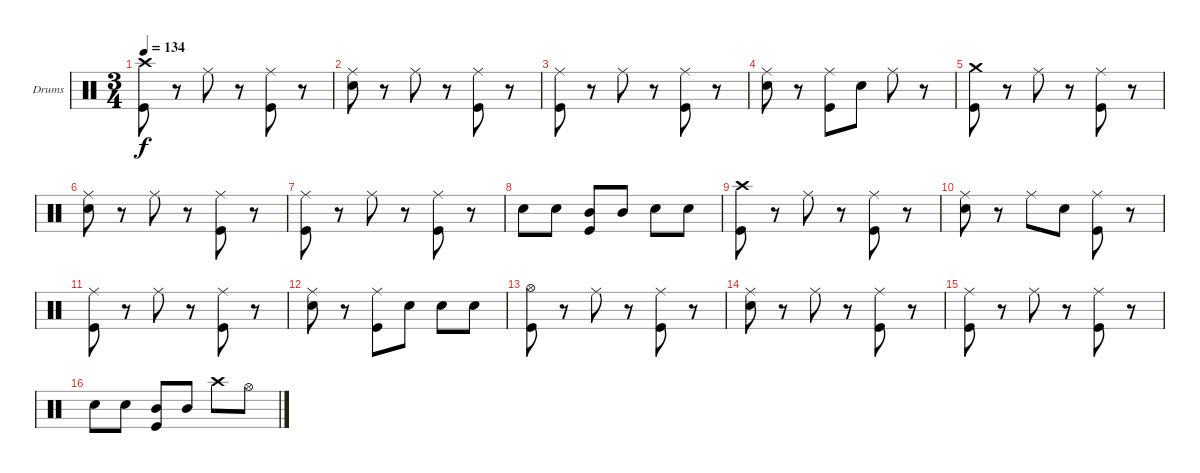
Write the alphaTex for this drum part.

\bracketExtendMode groupsimilarinstruments
\firstSystemTrackNameOrientation horizontal
\otherSystemsTrackNameOrientation horizontal
\track ("Drumkit" "Drums") {instrument percussion}
\staff {score}
\articulation defaults
\ts (3 4)
\tempo 134
\clef neutral
\ks c
("Kick (hit)" "Crash high (hit)").8{dy f} r.8 "Ride (middle)".8 r.8 ("Kick (hit)" "Ride (middle)").8 r.8 |
("Ride (middle)" "Snare (hit) 2").8 r.8 "Ride (middle)".8 r.8 ("Kick (hit)" "Ride (middle)").8 r.8 |
("Ride (middle)" "Kick (hit)").8 r.8 "Ride (middle)".8 r.8 ("Kick (hit)" "Ride (middle)").8 r.8 |
("Ride (middle)" "Snare (hit) 2").8 r.8 ("Kick (hit)" "Ride (middle)").8 "Snare (hit) 2".8 "Ride (middle)".8 r.8 |
("Crash medium (hit)" "Kick (hit)").8 r.8 "Ride (middle)".8 r.8 ("Kick (hit)" "Ride (middle)").8 r.8 |
("Snare (hit) 2" "Ride (middle)").8 r.8 "Ride (middle)".8 r.8 ("Ride (middle)" "Kick (hit)").8 r.8 |
("Kick (hit)" "Ride (middle)").8 r.8 "Ride (middle)".8 r.8 ("Ride (middle)" "Kick (hit)").8 r.8 |
"Snare (hit) 2".8 "Snare (hit) 2".8 ("Mid Tom (hit)" "Kick (hit)").8 "Mid Tom (hit)".8 "Snare (hit) 2".8 "Snare (hit) 2".8 |
("Crash high (hit)" "Kick (hit)").8 r.8 "Ride (middle)".8 r.8 ("Kick (hit)" "Ride (middle)").8 r.8 |
("Snare (hit) 2" "Ride (middle)").8 r.8 "Ride (middle)".8 "Snare (hit) 2".8 ("Ride (middle)" "Kick (hit)").8 r.8 |
("Kick (hit)" "Ride (middle)").8 r.8 "Ride (middle)".8 r.8 ("Ride (middle)" "Kick (hit)").8 r.8 |
("Ride (middle)" "Snare (hit) 2").8 r.8 ("Ride (middle)" "Kick (hit)").8 "Snare (hit) 2".8 "Snare (hit) 2".8 "Snare (hit) 2".8 |
("Hi-Hat (open)" "Kick (hit)").8 r.8 "Ride (middle)".8 r.8 ("Ride (middle)" "Kick (hit)").8 r.8 |
("Ride (middle)" "Snare (hit) 2").8 r.8 "Ride (middle)".8 r.8 ("Kick (hit)" "Ride (middle)").8 r.8 |
("Ride (middle)" "Kick (hit)").8 r.8 "Ride (middle)".8 r.8 ("Kick (hit)" "Ride (middle)").8 r.8 |
"Snare (hit) 2".8 "Snare (hit) 2".8 ("Mid Tom (hit)" "Kick (hit)").8 "Mid Tom (hit)".8 "Crash high (hit)".8 "Hi-Hat (open)".8
